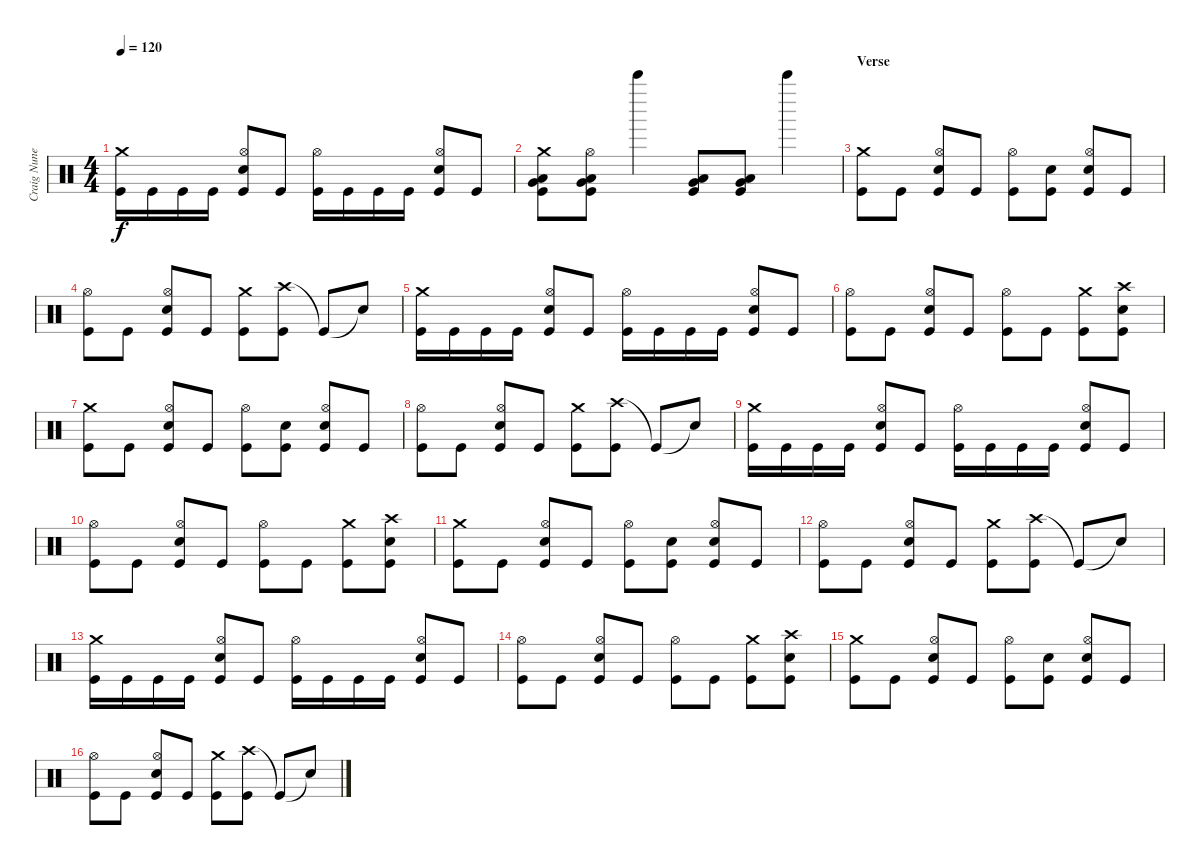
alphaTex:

\track ("Craig Nunenmacher" "Craig Nune") {instrument percussion}
\staff {score}
\articulation defaults
\ts (4 4)
\tempo 120
\clef neutral
\ks c
("Crash medium (hit)" "Kick (hit)").16{dy f} "Kick (hit)".16 "Kick (hit)".16 "Kick (hit)".16 ("Hi-Hat (open)" "Snare (hit) 2" "Kick (hit)").8 "Kick (hit)".8 ("Hi-Hat (open)" "Kick (hit)").16 "Kick (hit)".16 "Kick (hit)".16 "Kick (hit)".16 ("Hi-Hat (open)" "Snare (hit) 2" "Kick (hit)").8 "Kick (hit)".8 |
("Crash medium (hit)" "Low Tom (hit)" "Very Low Tom (hit)" "Kick (hit)").8 ("Hi-Hat (open)" "Low Tom (hit)" "Very Low Tom (hit)" "Kick (hit)").8 "Bell Tree (hit)".4 ("Low Tom (hit)" "Very Low Tom (hit)" "Kick (hit)").8 ("Low Tom (hit)" "Very Low Tom (hit)" "Kick (hit)").8 "Bell Tree (hit)".4 |
\section ("" "Verse")
("Crash medium (hit)" "Kick (hit)").8 "Kick (hit)".8 ("Hi-Hat (open)" "Snare (hit) 2" "Kick (hit)").8 "Kick (hit)".8 ("Hi-Hat (open)" "Kick (hit)").8 ("Snare (hit) 2" "Kick (hit)").8 ("Hi-Hat (open)" "Snare (hit) 2" "Kick (hit)").8 "Kick (hit)".8 |
("Hi-Hat (open)" "Kick (hit)").8 "Kick (hit)".8 ("Hi-Hat (open)" "Snare (hit) 2" "Kick (hit)").8 "Kick (hit)".8 ("Crash medium (hit)" "Kick (hit)").8 ("Crash high (hit)" "Kick (hit)").8 "Kick (hit)"{t}.8 "Snare (hit)"{t}.8 |
("Crash medium (hit)" "Kick (hit)").16 "Kick (hit)".16 "Kick (hit)".16 "Kick (hit)".16 ("Hi-Hat (open)" "Snare (hit) 2" "Kick (hit)").8 "Kick (hit)".8 ("Hi-Hat (open)" "Kick (hit)").16 "Kick (hit)".16 "Kick (hit)".16 "Kick (hit)".16 ("Hi-Hat (open)" "Snare (hit) 2" "Kick (hit)").8 "Kick (hit)".8 |
("Hi-Hat (open)" "Kick (hit)").8 "Kick (hit)".8 ("Hi-Hat (open)" "Snare (hit) 2" "Kick (hit)").8 "Kick (hit)".8 ("Hi-Hat (open)" "Kick (hit)").8 "Kick (hit)".8 ("Crash medium (hit)" "Kick (hit)").8 ("Crash high (hit)" "Snare (hit) 2" "Kick (hit)").8 |
("Crash medium (hit)" "Kick (hit)").8 "Kick (hit)".8 ("Hi-Hat (open)" "Snare (hit) 2" "Kick (hit)").8 "Kick (hit)".8 ("Hi-Hat (open)" "Kick (hit)").8 ("Snare (hit) 2" "Kick (hit)").8 ("Hi-Hat (open)" "Snare (hit) 2" "Kick (hit)").8 "Kick (hit)".8 |
("Hi-Hat (open)" "Kick (hit)").8 "Kick (hit)".8 ("Hi-Hat (open)" "Snare (hit) 2" "Kick (hit)").8 "Kick (hit)".8 ("Crash medium (hit)" "Kick (hit)").8 ("Crash high (hit)" "Kick (hit)").8 "Kick (hit)"{t}.8 "Snare (hit)"{t}.8 |
("Crash medium (hit)" "Kick (hit)").16 "Kick (hit)".16 "Kick (hit)".16 "Kick (hit)".16 ("Hi-Hat (open)" "Snare (hit) 2" "Kick (hit)").8 "Kick (hit)".8 ("Hi-Hat (open)" "Kick (hit)").16 "Kick (hit)".16 "Kick (hit)".16 "Kick (hit)".16 ("Hi-Hat (open)" "Snare (hit) 2" "Kick (hit)").8 "Kick (hit)".8 |
("Hi-Hat (open)" "Kick (hit)").8 "Kick (hit)".8 ("Hi-Hat (open)" "Snare (hit) 2" "Kick (hit)").8 "Kick (hit)".8 ("Hi-Hat (open)" "Kick (hit)").8 "Kick (hit)".8 ("Crash medium (hit)" "Kick (hit)").8 ("Crash high (hit)" "Snare (hit) 2" "Kick (hit)").8 |
("Crash medium (hit)" "Kick (hit)").8 "Kick (hit)".8 ("Hi-Hat (open)" "Snare (hit) 2" "Kick (hit)").8 "Kick (hit)".8 ("Hi-Hat (open)" "Kick (hit)").8 ("Snare (hit) 2" "Kick (hit)").8 ("Hi-Hat (open)" "Snare (hit) 2" "Kick (hit)").8 "Kick (hit)".8 |
("Hi-Hat (open)" "Kick (hit)").8 "Kick (hit)".8 ("Hi-Hat (open)" "Snare (hit) 2" "Kick (hit)").8 "Kick (hit)".8 ("Crash medium (hit)" "Kick (hit)").8 ("Crash high (hit)" "Kick (hit)").8 "Kick (hit)"{t}.8 "Snare (hit)"{t}.8 |
("Crash medium (hit)" "Kick (hit)").16 "Kick (hit)".16 "Kick (hit)".16 "Kick (hit)".16 ("Hi-Hat (open)" "Snare (hit) 2" "Kick (hit)").8 "Kick (hit)".8 ("Hi-Hat (open)" "Kick (hit)").16 "Kick (hit)".16 "Kick (hit)".16 "Kick (hit)".16 ("Hi-Hat (open)" "Snare (hit) 2" "Kick (hit)").8 "Kick (hit)".8 |
("Hi-Hat (open)" "Kick (hit)").8 "Kick (hit)".8 ("Hi-Hat (open)" "Snare (hit) 2" "Kick (hit)").8 "Kick (hit)".8 ("Hi-Hat (open)" "Kick (hit)").8 "Kick (hit)".8 ("Crash medium (hit)" "Kick (hit)").8 ("Crash high (hit)" "Snare (hit) 2" "Kick (hit)").8 |
("Crash medium (hit)" "Kick (hit)").8 "Kick (hit)".8 ("Hi-Hat (open)" "Snare (hit) 2" "Kick (hit)").8 "Kick (hit)".8 ("Hi-Hat (open)" "Kick (hit)").8 ("Snare (hit) 2" "Kick (hit)").8 ("Hi-Hat (open)" "Snare (hit) 2" "Kick (hit)").8 "Kick (hit)".8 |
("Hi-Hat (open)" "Kick (hit)").8 "Kick (hit)".8 ("Hi-Hat (open)" "Snare (hit) 2" "Kick (hit)").8 "Kick (hit)".8 ("Crash medium (hit)" "Kick (hit)").8 ("Crash high (hit)" "Kick (hit)").8 "Kick (hit)"{t}.8 "Snare (hit)"{t}.8
